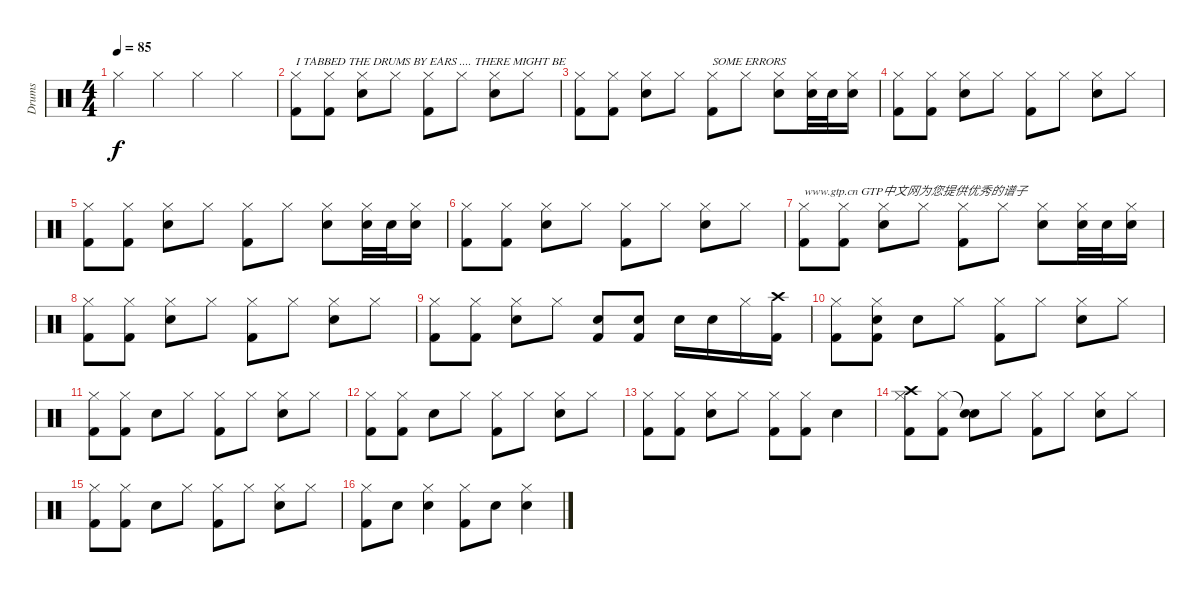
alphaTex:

\track ("Drums" "Drums") {instrument percussion}
\staff {score}
\articulation defaults
\ts (4 4)
\tempo 85
\clef neutral
\ks c "Hi-Hat (closed)".4{dy f} "Hi-Hat (closed)".4 "Hi-Hat (closed)".4 "Hi-Hat (closed)".4
|
("Kick (hit) 2" "Hi-Hat (closed)").8{txt "I TABBED THE DRUMS BY EARS .... THERE MIGHT BE "} ("Kick (hit) 2" "Hi-Hat (closed)").8 ("Snare (hit) 2" "Hi-Hat (closed)").8 "Hi-Hat (closed)".8 ("Kick (hit) 2" "Hi-Hat (closed)").8 "Hi-Hat (closed)".8 ("Snare (hit) 2" "Hi-Hat (closed)").8 "Hi-Hat (closed)".8 |
("Kick (hit) 2" "Hi-Hat (closed)").8 ("Kick (hit) 2" "Hi-Hat (closed)").8 ("Snare (hit) 2" "Hi-Hat (closed)").8 "Hi-Hat (closed)".8 ("Kick (hit) 2" "Hi-Hat (closed)").8{txt "SOME ERRORS"} "Hi-Hat (closed)".8 ("Snare (hit) 2" "Hi-Hat (closed)").8 ("Snare (hit) 2" "Hi-Hat (closed)").32 "Snare (hit) 2".32 ("Snare (hit) 2" "Hi-Hat (closed)").16 |
("Kick (hit) 2" "Hi-Hat (closed)").8 ("Kick (hit) 2" "Hi-Hat (closed)").8 ("Snare (hit) 2" "Hi-Hat (closed)").8 "Hi-Hat (closed)".8 ("Kick (hit) 2" "Hi-Hat (closed)").8 "Hi-Hat (closed)".8 ("Snare (hit) 2" "Hi-Hat (closed)").8 "Hi-Hat (closed)".8 |
("Kick (hit) 2" "Hi-Hat (closed)").8 ("Kick (hit) 2" "Hi-Hat (closed)").8 ("Snare (hit) 2" "Hi-Hat (closed)").8 "Hi-Hat (closed)".8 ("Kick (hit) 2" "Hi-Hat (closed)").8 "Hi-Hat (closed)".8 ("Snare (hit) 2" "Hi-Hat (closed)").8 ("Snare (hit) 2" "Hi-Hat (closed)").32 "Snare (hit) 2".32 ("Snare (hit) 2" "Hi-Hat (closed)").16 |
("Kick (hit) 2" "Hi-Hat (closed)").8 ("Kick (hit) 2" "Hi-Hat (closed)").8 ("Snare (hit) 2" "Hi-Hat (closed)").8 "Hi-Hat (closed)".8 ("Kick (hit) 2" "Hi-Hat (closed)").8 "Hi-Hat (closed)".8 ("Snare (hit) 2" "Hi-Hat (closed)").8 "Hi-Hat (closed)".8 |
("Kick (hit) 2" "Hi-Hat (closed)").8{txt "www.gtp.cn GTP中文网为您提供优秀的谱子"} ("Kick (hit) 2" "Hi-Hat (closed)").8 ("Snare (hit) 2" "Hi-Hat (closed)").8 "Hi-Hat (closed)".8 ("Kick (hit) 2" "Hi-Hat (closed)").8 "Hi-Hat (closed)".8 ("Snare (hit) 2" "Hi-Hat (closed)").8 ("Snare (hit) 2" "Hi-Hat (closed)").32 "Snare (hit) 2".32 ("Snare (hit) 2" "Hi-Hat (closed)").16 |
("Kick (hit) 2" "Hi-Hat (closed)").8 ("Kick (hit) 2" "Hi-Hat (closed)").8 ("Snare (hit) 2" "Hi-Hat (closed)").8 "Hi-Hat (closed)".8 ("Kick (hit) 2" "Hi-Hat (closed)").8 "Hi-Hat (closed)".8 ("Snare (hit) 2" "Hi-Hat (closed)").8 "Hi-Hat (closed)".8 |
("Kick (hit) 2" "Hi-Hat (closed)").8 ("Kick (hit) 2" "Hi-Hat (closed)").8 ("Snare (hit) 2" "Hi-Hat (closed)").8 "Hi-Hat (closed)".8 ("Kick (hit) 2" "Snare (hit) 2").8 ("Snare (hit) 2" "Kick (hit) 2").8 "Snare (hit) 2".16 "Snare (hit) 2".16 "Hi-Hat (closed)".16 ("Kick (hit) 2" "Crash high (hit)").16 |
("Kick (hit) 2" "Hi-Hat (closed)").8 ("Kick (hit) 2" "Hi-Hat (closed)" "Snare (hit)").8 "Snare (hit) 2".8 "Hi-Hat (closed)".8 ("Kick (hit) 2" "Hi-Hat (closed)").8 "Hi-Hat (closed)".8 ("Snare (hit) 2" "Hi-Hat (closed)").8 "Hi-Hat (closed)".8 |
("Kick (hit) 2" "Hi-Hat (closed)").8 ("Kick (hit) 2" "Hi-Hat (closed)").8 "Snare (hit) 2".8 "Hi-Hat (closed)".8 ("Kick (hit) 2" "Hi-Hat (closed)").8 "Hi-Hat (closed)".8 ("Snare (hit) 2" "Hi-Hat (closed)").8 "Hi-Hat (closed)".8 |
("Kick (hit) 2" "Hi-Hat (closed)").8 ("Kick (hit) 2" "Hi-Hat (closed)").8 "Snare (hit) 2".8 "Hi-Hat (closed)".8 ("Kick (hit) 2" "Hi-Hat (closed)").8 "Hi-Hat (closed)".8 ("Snare (hit) 2" "Hi-Hat (closed)").8 "Hi-Hat (closed)".8 |
("Kick (hit) 2" "Hi-Hat (closed)").8 ("Kick (hit) 2" "Hi-Hat (closed)").8 ("Snare (hit) 2" "Hi-Hat (closed)").8 "Hi-Hat (closed)".8 ("Kick (hit) 2" "Hi-Hat (closed)").8 ("Kick (hit) 2" "Hi-Hat (closed)").8 "Snare (hit) 2".4 |
("Kick (hit) 2" "Hi-Hat (closed)" "Crash high (hit)").8 ("Kick (hit) 2" "Hi-Hat (closed)").8 ("Snare (hit) 2" "Snare (hit)"{t}).8 "Hi-Hat (closed)".8 ("Kick (hit) 2" "Hi-Hat (closed)").8 "Hi-Hat (closed)".8 ("Snare (hit) 2" "Hi-Hat (closed)").8 "Hi-Hat (closed)".8 |
("Kick (hit) 2" "Hi-Hat (closed)").8 ("Kick (hit) 2" "Hi-Hat (closed)").8 "Snare (hit) 2".8 "Hi-Hat (closed)".8 ("Kick (hit) 2" "Hi-Hat (closed)").8 "Hi-Hat (closed)".8 ("Snare (hit) 2" "Hi-Hat (closed)").8 "Hi-Hat (closed)".8 |
("Kick (hit) 2" "Hi-Hat (closed)").8 "Snare (hit) 2".8 ("Snare (hit) 2" "Hi-Hat (closed)").4 ("Kick (hit) 2" "Hi-Hat (closed)").8 "Snare (hit) 2".8 ("Snare (hit) 2" "Hi-Hat (closed)").4
